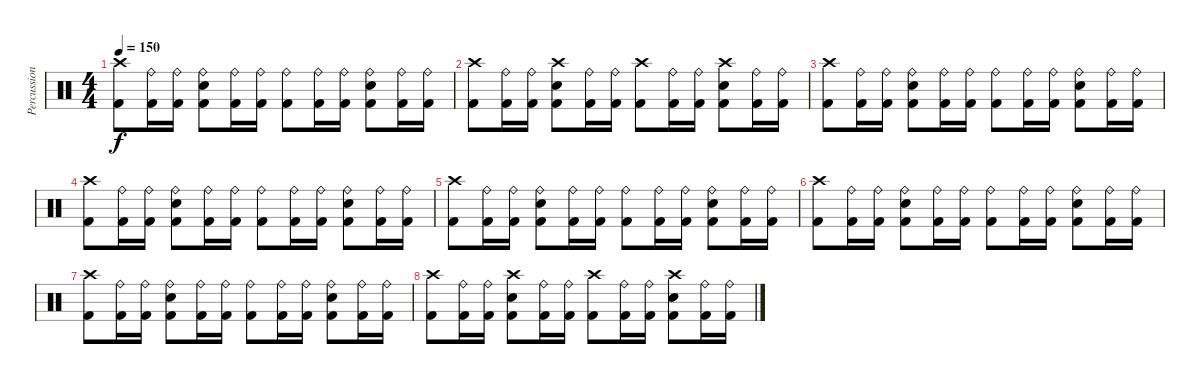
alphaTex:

\track ("Percussion" "Percussion") {instrument percussion}
\staff {score}
\articulation defaults
\ts (4 4)
\tempo 150
\clef neutral
\ks c
("Crash high (hit)" "Kick (hit) 2").8{dy f} ("Ride (bell)" "Kick (hit) 2").16 ("Ride (bell)" "Kick (hit) 2").16 ("Ride (bell)" "Snare (hit) 2" "Kick (hit) 2").8 ("Ride (bell)" "Kick (hit) 2").16 ("Ride (bell)" "Kick (hit) 2").16 ("Ride (bell)" "Kick (hit) 2").8 ("Ride (bell)" "Kick (hit) 2").16 ("Ride (bell)" "Kick (hit) 2").16 ("Ride (bell)" "Snare (hit) 2" "Kick (hit) 2").8 ("Ride (bell)" "Kick (hit) 2").16 ("Ride (bell)" "Kick (hit) 2").16 |
("Crash high (hit)" "Kick (hit) 2").8 ("Ride (bell)" "Kick (hit) 2").16 ("Ride (bell)" "Kick (hit) 2").16 ("Crash high (hit)" "Snare (hit) 2" "Kick (hit) 2").8 ("Ride (bell)" "Kick (hit) 2").16 ("Ride (bell)" "Kick (hit) 2").16 ("Crash high (hit)" "Kick (hit) 2").8 ("Ride (bell)" "Kick (hit) 2").16 ("Ride (bell)" "Kick (hit) 2").16 ("Crash high (hit)" "Snare (hit) 2" "Kick (hit) 2").8 ("Ride (bell)" "Kick (hit) 2").16 ("Ride (bell)" "Kick (hit) 2").16 |
("Crash high (hit)" "Kick (hit) 2").8 ("Ride (bell)" "Kick (hit) 2").16 ("Ride (bell)" "Kick (hit) 2").16 ("Ride (bell)" "Snare (hit) 2" "Kick (hit) 2").8 ("Ride (bell)" "Kick (hit) 2").16 ("Ride (bell)" "Kick (hit) 2").16 ("Ride (bell)" "Kick (hit) 2").8 ("Ride (bell)" "Kick (hit) 2").16 ("Ride (bell)" "Kick (hit) 2").16 ("Ride (bell)" "Snare (hit) 2" "Kick (hit) 2").8 ("Ride (bell)" "Kick (hit) 2").16 ("Ride (bell)" "Kick (hit) 2").16 |
("Crash high (hit)" "Kick (hit) 2").8 ("Ride (bell)" "Kick (hit) 2").16 ("Ride (bell)" "Kick (hit) 2").16 ("Ride (bell)" "Snare (hit) 2" "Kick (hit) 2").8 ("Ride (bell)" "Kick (hit) 2").16 ("Ride (bell)" "Kick (hit) 2").16 ("Ride (bell)" "Kick (hit) 2").8 ("Ride (bell)" "Kick (hit) 2").16 ("Ride (bell)" "Kick (hit) 2").16 ("Ride (bell)" "Snare (hit) 2" "Kick (hit) 2").8 ("Ride (bell)" "Kick (hit) 2").16 ("Ride (bell)" "Kick (hit) 2").16 |
("Crash high (hit)" "Kick (hit) 2").8 ("Ride (bell)" "Kick (hit) 2").16 ("Ride (bell)" "Kick (hit) 2").16 ("Ride (bell)" "Snare (hit) 2" "Kick (hit) 2").8 ("Ride (bell)" "Kick (hit) 2").16 ("Ride (bell)" "Kick (hit) 2").16 ("Ride (bell)" "Kick (hit) 2").8 ("Ride (bell)" "Kick (hit) 2").16 ("Ride (bell)" "Kick (hit) 2").16 ("Ride (bell)" "Snare (hit) 2" "Kick (hit) 2").8 ("Ride (bell)" "Kick (hit) 2").16 ("Ride (bell)" "Kick (hit) 2").16 |
("Crash high (hit)" "Kick (hit) 2").8 ("Ride (bell)" "Kick (hit) 2").16 ("Ride (bell)" "Kick (hit) 2").16 ("Ride (bell)" "Snare (hit) 2" "Kick (hit) 2").8 ("Ride (bell)" "Kick (hit) 2").16 ("Ride (bell)" "Kick (hit) 2").16 ("Ride (bell)" "Kick (hit) 2").8 ("Ride (bell)" "Kick (hit) 2").16 ("Ride (bell)" "Kick (hit) 2").16 ("Ride (bell)" "Snare (hit) 2" "Kick (hit) 2").8 ("Ride (bell)" "Kick (hit) 2").16 ("Ride (bell)" "Kick (hit) 2").16 |
("Crash high (hit)" "Kick (hit) 2").8 ("Ride (bell)" "Kick (hit) 2").16 ("Ride (bell)" "Kick (hit) 2").16 ("Ride (bell)" "Snare (hit) 2" "Kick (hit) 2").8 ("Ride (bell)" "Kick (hit) 2").16 ("Ride (bell)" "Kick (hit) 2").16 ("Ride (bell)" "Kick (hit) 2").8 ("Ride (bell)" "Kick (hit) 2").16 ("Ride (bell)" "Kick (hit) 2").16 ("Ride (bell)" "Snare (hit) 2" "Kick (hit) 2").8 ("Ride (bell)" "Kick (hit) 2").16 ("Ride (bell)" "Kick (hit) 2").16 |
("Crash high (hit)" "Kick (hit) 2").8 ("Ride (bell)" "Kick (hit) 2").16 ("Ride (bell)" "Kick (hit) 2").16 ("Crash high (hit)" "Snare (hit) 2" "Kick (hit) 2").8 ("Ride (bell)" "Kick (hit) 2").16 ("Ride (bell)" "Kick (hit) 2").16 ("Crash high (hit)" "Kick (hit) 2").8 ("Ride (bell)" "Kick (hit) 2").16 ("Ride (bell)" "Kick (hit) 2").16 ("Crash high (hit)" "Snare (hit) 2" "Kick (hit) 2").8 ("Ride (bell)" "Kick (hit) 2").16 ("Ride (bell)" "Kick (hit) 2").16
